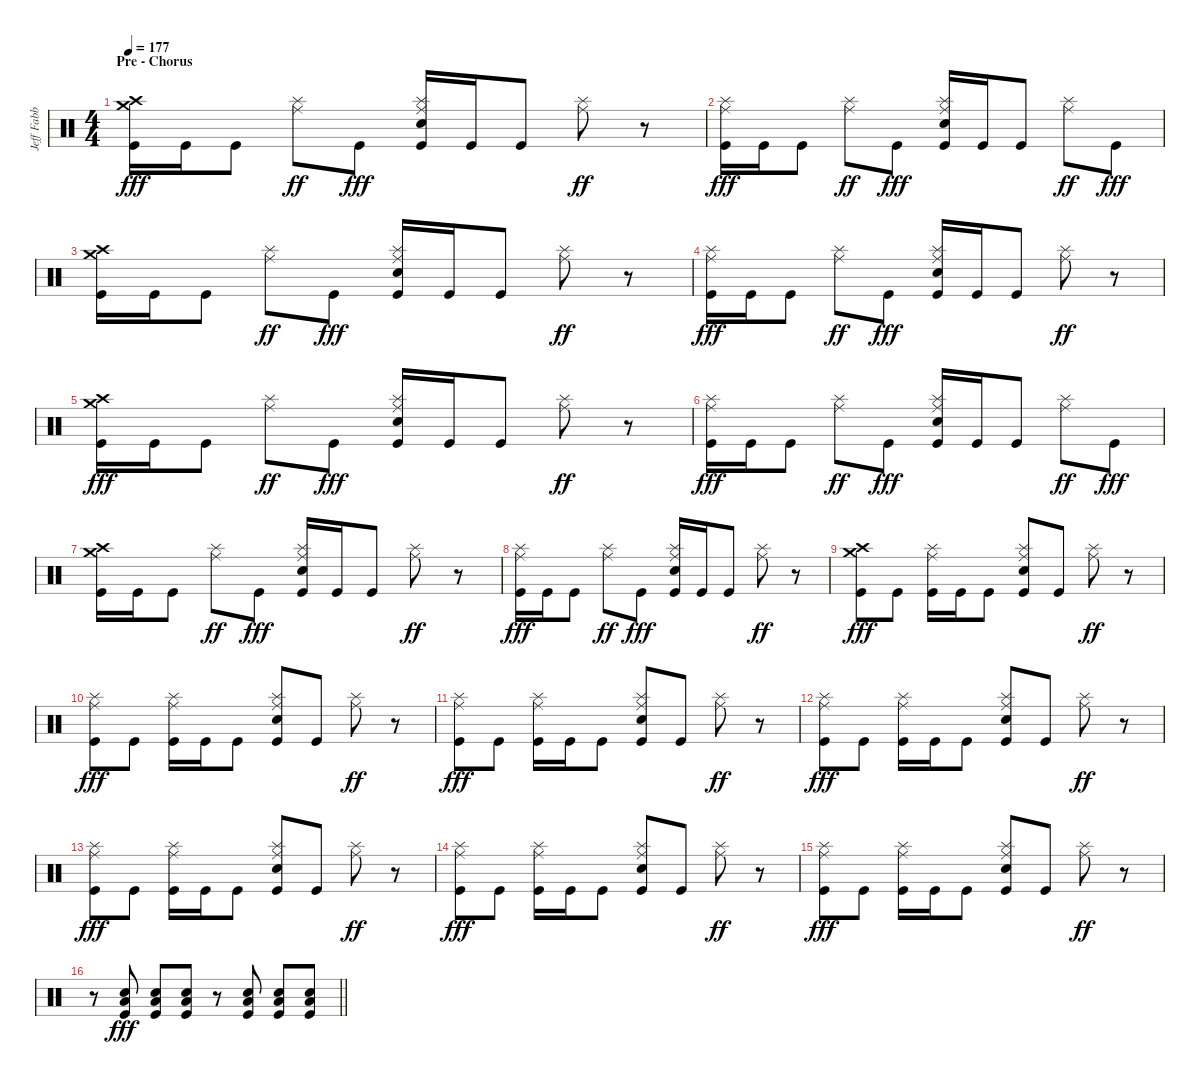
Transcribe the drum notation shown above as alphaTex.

\track ("Jeff Fabb (Drums)" "Jeff Fabb ") {instrument percussion}
\staff {score}
\articulation defaults
\ts (4 4)
\section ("" "Pre - Chorus")
\tempo 177
\clef neutral
\ks c
("Crash high (hit)" "Crash medium (hit)" "Kick (hit)").16{dy fff} "Kick (hit)".16 "Kick (hit)".8 ("Splash (hit)" "Ride (middle)").8{dy ff} "Kick (hit)".8{dy fff} ("Splash (hit)" "Ride (middle)" "Electric Snare (hit)" "Kick (hit)").16 "Kick (hit)".16 "Kick (hit)".8 ("Splash (hit)" "Ride (middle)").8{dy ff} r.8 |
("Splash (hit)" "Ride (middle)" "Kick (hit)").16{dy fff} "Kick (hit)".16 "Kick (hit)".8 ("Splash (hit)" "Ride (middle)").8{dy ff} "Kick (hit)".8{dy fff} ("Splash (hit)" "Ride (middle)" "Electric Snare (hit)" "Kick (hit)").16 "Kick (hit)".16 "Kick (hit)".8 ("Splash (hit)" "Ride (middle)").8{dy ff} "Kick (hit)".8{dy fff} |
("Crash high (hit)" "Crash medium (hit)" "Kick (hit)").16 "Kick (hit)".16 "Kick (hit)".8 ("Splash (hit)" "Ride (middle)").8{dy ff} "Kick (hit)".8{dy fff} ("Splash (hit)" "Ride (middle)" "Electric Snare (hit)" "Kick (hit)").16 "Kick (hit)".16 "Kick (hit)".8 ("Splash (hit)" "Ride (middle)").8{dy ff} r.8 |
("Splash (hit)" "Ride (middle)" "Kick (hit)").16{dy fff} "Kick (hit)".16 "Kick (hit)".8 ("Splash (hit)" "Ride (middle)").8{dy ff} "Kick (hit)".8{dy fff} ("Splash (hit)" "Ride (middle)" "Electric Snare (hit)" "Kick (hit)").16 "Kick (hit)".16 "Kick (hit)".8 ("Splash (hit)" "Ride (middle)").8{dy ff} r.8 |
("Crash high (hit)" "Crash medium (hit)" "Kick (hit)").16{dy fff} "Kick (hit)".16 "Kick (hit)".8 ("Splash (hit)" "Ride (middle)").8{dy ff} "Kick (hit)".8{dy fff} ("Splash (hit)" "Ride (middle)" "Electric Snare (hit)" "Kick (hit)").16 "Kick (hit)".16 "Kick (hit)".8 ("Splash (hit)" "Ride (middle)").8{dy ff} r.8 |
("Splash (hit)" "Ride (middle)" "Kick (hit)").16{dy fff} "Kick (hit)".16 "Kick (hit)".8 ("Splash (hit)" "Ride (middle)").8{dy ff} "Kick (hit)".8{dy fff} ("Splash (hit)" "Ride (middle)" "Electric Snare (hit)" "Kick (hit)").16 "Kick (hit)".16 "Kick (hit)".8 ("Splash (hit)" "Ride (middle)").8{dy ff} "Kick (hit)".8{dy fff} |
("Crash high (hit)" "Crash medium (hit)" "Kick (hit)").16 "Kick (hit)".16 "Kick (hit)".8 ("Splash (hit)" "Ride (middle)").8{dy ff} "Kick (hit)".8{dy fff} ("Splash (hit)" "Ride (middle)" "Electric Snare (hit)" "Kick (hit)").16 "Kick (hit)".16 "Kick (hit)".8 ("Splash (hit)" "Ride (middle)").8{dy ff} r.8 |
("Splash (hit)" "Ride (middle)" "Kick (hit)").16{dy fff} "Kick (hit)".16 "Kick (hit)".8 ("Splash (hit)" "Ride (middle)").8{dy ff} "Kick (hit)".8{dy fff} ("Splash (hit)" "Ride (middle)" "Electric Snare (hit)" "Kick (hit)").16 "Kick (hit)".16 "Kick (hit)".8 ("Splash (hit)" "Ride (middle)").8{dy ff} r.8 |
("Crash high (hit)" "Crash medium (hit)" "Kick (hit)").8{dy fff} "Kick (hit)".8 ("Splash (hit)" "Ride (middle)" "Kick (hit)").16 "Kick (hit)".16 "Kick (hit)".8 ("Splash (hit)" "Ride (middle)" "Electric Snare (hit)" "Kick (hit)").8 "Kick (hit)".8 ("Splash (hit)" "Ride (middle)").8{dy ff} r.8 |
("Splash (hit)" "Ride (middle)" "Kick (hit)").8{dy fff} "Kick (hit)".8 ("Splash (hit)" "Ride (middle)" "Kick (hit)").16 "Kick (hit)".16 "Kick (hit)".8 ("Splash (hit)" "Ride (middle)" "Electric Snare (hit)" "Kick (hit)").8 "Kick (hit)".8 ("Splash (hit)" "Ride (middle)").8{dy ff} r.8 |
("Splash (hit)" "Ride (middle)" "Kick (hit)").8{dy fff} "Kick (hit)".8 ("Splash (hit)" "Ride (middle)" "Kick (hit)").16 "Kick (hit)".16 "Kick (hit)".8 ("Splash (hit)" "Ride (middle)" "Electric Snare (hit)" "Kick (hit)").8 "Kick (hit)".8 ("Splash (hit)" "Ride (middle)").8{dy ff} r.8 |
("Splash (hit)" "Ride (middle)" "Kick (hit)").8{dy fff} "Kick (hit)".8 ("Splash (hit)" "Ride (middle)" "Kick (hit)").16 "Kick (hit)".16 "Kick (hit)".8 ("Splash (hit)" "Ride (middle)" "Electric Snare (hit)" "Kick (hit)").8 "Kick (hit)".8 ("Splash (hit)" "Ride (middle)").8{dy ff} r.8 |
("Splash (hit)" "Ride (middle)" "Kick (hit)").8{dy fff} "Kick (hit)".8 ("Splash (hit)" "Ride (middle)" "Kick (hit)").16 "Kick (hit)".16 "Kick (hit)".8 ("Splash (hit)" "Ride (middle)" "Electric Snare (hit)" "Kick (hit)").8 "Kick (hit)".8 ("Splash (hit)" "Ride (middle)").8{dy ff} r.8 |
("Splash (hit)" "Ride (middle)" "Kick (hit)").8{dy fff} "Kick (hit)".8 ("Splash (hit)" "Ride (middle)" "Kick (hit)").16 "Kick (hit)".16 "Kick (hit)".8 ("Splash (hit)" "Ride (middle)" "Electric Snare (hit)" "Kick (hit)").8 "Kick (hit)".8 ("Splash (hit)" "Ride (middle)").8{dy ff} r.8 |
("Splash (hit)" "Ride (middle)" "Kick (hit)").8{dy fff} "Kick (hit)".8 ("Splash (hit)" "Ride (middle)" "Kick (hit)").16 "Kick (hit)".16 "Kick (hit)".8 ("Splash (hit)" "Ride (middle)" "Electric Snare (hit)" "Kick (hit)").8 "Kick (hit)".8 ("Splash (hit)" "Ride (middle)").8{dy ff} r.8 |
\barLineRight lightlight
r.8 ("Low Floor Tom (hit)" "Electric Snare (hit)" "Kick (hit)").8{dy fff} ("Low Floor Tom (hit)" "Electric Snare (hit)" "Kick (hit)").8 ("Low Floor Tom (hit)" "Electric Snare (hit)" "Kick (hit)").8 r.8 ("Low Floor Tom (hit)" "Electric Snare (hit)" "Kick (hit)").8 ("Low Floor Tom (hit)" "Electric Snare (hit)" "Kick (hit)").8 ("Low Floor Tom (hit)" "Electric Snare (hit)" "Kick (hit)").8
